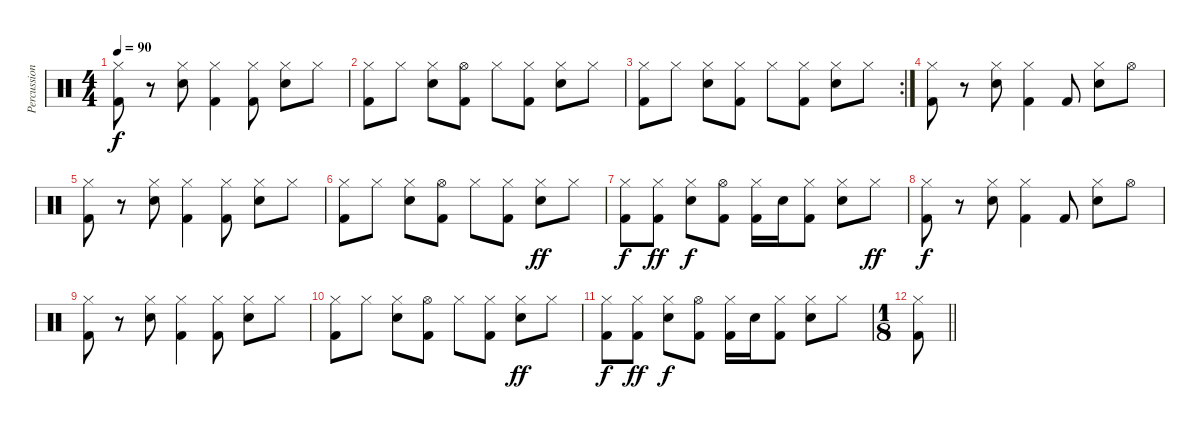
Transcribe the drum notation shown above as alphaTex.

\track ("Percussion" "Percussion") {instrument percussion}
\staff {score}
\articulation defaults
\ts (4 4)
\tempo 90
\clef neutral
\ks c
("Hi-Hat (closed)" "Kick (hit) 2").8{dy f} r.8 ("Hi-Hat (closed)" "Snare (hit) 2").8 ("Hi-Hat (closed)" "Kick (hit) 2").4 ("Hi-Hat (closed)" "Kick (hit) 2").8 ("Hi-Hat (closed)" "Snare (hit) 2").8 "Hi-Hat (closed)".8 |
("Hi-Hat (closed)" "Kick (hit) 2").8 "Hi-Hat (closed)".8 ("Hi-Hat (closed)" "Snare (hit) 2").8 ("Hi-Hat (open)" "Kick (hit) 2").8 "Hi-Hat (closed)".8 ("Hi-Hat (closed)" "Kick (hit) 2").8 ("Hi-Hat (closed)" "Snare (hit) 2").8 "Hi-Hat (closed)".8 |
\rc 2
("Hi-Hat (closed)" "Kick (hit) 2").8 "Hi-Hat (closed)".8 ("Hi-Hat (closed)" "Snare (hit) 2").8 ("Hi-Hat (closed)" "Kick (hit) 2").8 "Hi-Hat (closed)".8 ("Hi-Hat (closed)" "Kick (hit) 2").8 ("Hi-Hat (closed)" "Snare (hit) 2").8 "Hi-Hat (closed)".8 |
("Hi-Hat (closed)" "Kick (hit) 2").8 r.8 ("Hi-Hat (closed)" "Snare (hit) 2").8 ("Hi-Hat (closed)" "Kick (hit) 2").4 "Kick (hit) 2".8 ("Hi-Hat (closed)" "Snare (hit) 2").8 "Hi-Hat (open)".8 |
("Hi-Hat (closed)" "Kick (hit) 2").8 r.8 ("Hi-Hat (closed)" "Snare (hit) 2").8 ("Hi-Hat (closed)" "Kick (hit) 2").4 ("Hi-Hat (closed)" "Kick (hit) 2").8 ("Hi-Hat (closed)" "Snare (hit) 2").8 "Hi-Hat (closed)".8 |
("Hi-Hat (closed)" "Kick (hit) 2").8 "Hi-Hat (closed)".8 ("Hi-Hat (closed)" "Snare (hit) 2").8 ("Hi-Hat (open)" "Kick (hit) 2").8 "Hi-Hat (closed)".8 ("Hi-Hat (closed)" "Kick (hit) 2").8 ("Hi-Hat (closed)" "Snare (hit) 2").8{dy ff} "Hi-Hat (closed)".8 |
("Hi-Hat (closed)" "Kick (hit) 2").8{dy f} ("Hi-Hat (closed)" "Kick (hit) 2").8{dy ff} ("Hi-Hat (closed)" "Snare (hit) 2").8{dy f} ("Hi-Hat (open)" "Kick (hit) 2").8 ("Hi-Hat (closed)" "Kick (hit) 2").16 "Snare (hit) 2".16 ("Hi-Hat (closed)" "Kick (hit) 2").8 ("Hi-Hat (closed)" "Snare (hit) 2").8 "Hi-Hat (closed)".8{dy ff} |
("Hi-Hat (closed)" "Kick (hit) 2").8{dy f} r.8 ("Hi-Hat (closed)" "Snare (hit) 2").8 ("Hi-Hat (closed)" "Kick (hit) 2").4 "Kick (hit) 2".8 ("Hi-Hat (closed)" "Snare (hit) 2").8 "Hi-Hat (open)".8 |
("Hi-Hat (closed)" "Kick (hit) 2").8 r.8 ("Hi-Hat (closed)" "Snare (hit) 2").8 ("Hi-Hat (closed)" "Kick (hit) 2").4 ("Hi-Hat (closed)" "Kick (hit) 2").8 ("Hi-Hat (closed)" "Snare (hit) 2").8 "Hi-Hat (closed)".8 |
("Hi-Hat (closed)" "Kick (hit) 2").8 "Hi-Hat (closed)".8 ("Hi-Hat (closed)" "Snare (hit) 2").8 ("Hi-Hat (open)" "Kick (hit) 2").8 "Hi-Hat (closed)".8 ("Hi-Hat (closed)" "Kick (hit) 2").8 ("Hi-Hat (closed)" "Snare (hit) 2").8{dy ff} "Hi-Hat (closed)".8 |
("Hi-Hat (closed)" "Kick (hit) 2").8{dy f} ("Hi-Hat (closed)" "Kick (hit) 2").8{dy ff} ("Hi-Hat (closed)" "Snare (hit) 2").8{dy f} ("Hi-Hat (open)" "Kick (hit) 2").8 ("Hi-Hat (closed)" "Kick (hit) 2").16 "Snare (hit) 2".16 ("Hi-Hat (closed)" "Kick (hit) 2").8 ("Hi-Hat (closed)" "Snare (hit) 2").8 "Hi-Hat (closed)".8 |
\ts (1 8)
\barLineRight lightlight
("Hi-Hat (closed)" "Kick (hit) 2").8
